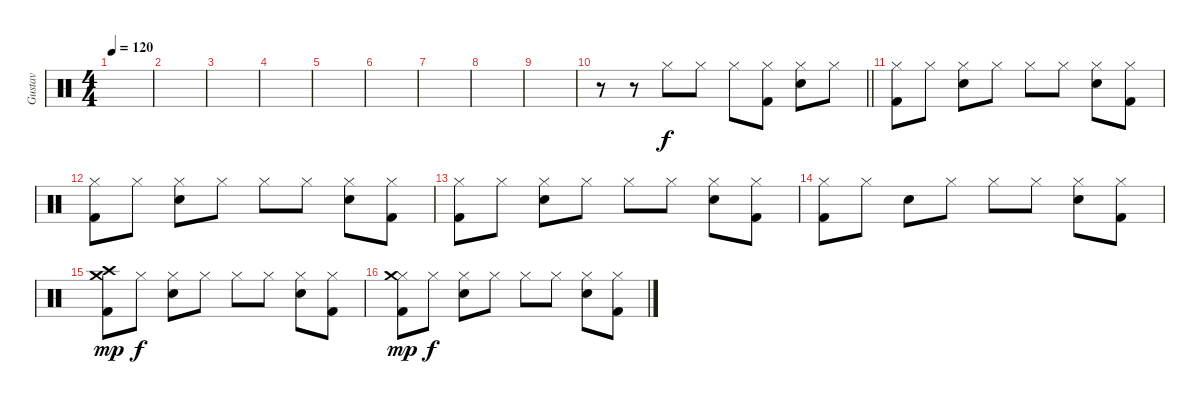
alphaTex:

\track ("Gustav" "Gustav") {instrument percussion}
\staff {score}
\articulation defaults
\ts (4 4)
\tempo 120
\clef neutral
\ks c
|
|
|
|
|
|
|
|
|
\barLineRight lightlight
r.8 r.8 "Hi-Hat (closed)".8 "Hi-Hat (closed)".8 "Hi-Hat (closed)".8 ("Hi-Hat (closed)" "Kick (hit) 2").8 ("Electric Snare (hit)" "Hi-Hat (closed)").8 "Hi-Hat (closed)".8 |
("Kick (hit) 2" "Hi-Hat (closed)").8{dy f} "Hi-Hat (closed)".8 ("Hi-Hat (closed)" "Snare (hit) 2").8 "Hi-Hat (closed)".8 "Hi-Hat (closed)".8 "Hi-Hat (closed)".8 ("Snare (hit) 2" "Hi-Hat (closed)").8 ("Hi-Hat (closed)" "Kick (hit) 2").8 |
("Kick (hit) 2" "Hi-Hat (closed)").8 "Hi-Hat (closed)".8 ("Hi-Hat (closed)" "Snare (hit) 2").8 "Hi-Hat (closed)".8 "Hi-Hat (closed)".8 "Hi-Hat (closed)".8 ("Snare (hit) 2" "Hi-Hat (closed)").8 ("Hi-Hat (closed)" "Kick (hit) 2").8 |
("Kick (hit) 2" "Hi-Hat (closed)").8 "Hi-Hat (closed)".8 ("Hi-Hat (closed)" "Snare (hit) 2").8 "Hi-Hat (closed)".8 "Hi-Hat (closed)".8 "Hi-Hat (closed)".8 ("Snare (hit) 2" "Hi-Hat (closed)").8 ("Hi-Hat (closed)" "Kick (hit) 2").8 |
("Kick (hit) 2" "Hi-Hat (closed)").8 "Hi-Hat (closed)".8 "Snare (hit) 2".8 "Hi-Hat (closed)".8 "Hi-Hat (closed)".8 "Hi-Hat (closed)".8 ("Snare (hit) 2" "Hi-Hat (closed)").8 ("Hi-Hat (closed)" "Kick (hit) 2").8 |
("Kick (hit) 2" "Crash high (hit)" "Crash medium (hit)").8{dy mp} "Hi-Hat (closed)".8{dy f} ("Hi-Hat (closed)" "Snare (hit) 2").8 "Hi-Hat (closed)".8 "Hi-Hat (closed)".8 "Hi-Hat (closed)".8 ("Snare (hit) 2" "Hi-Hat (closed)").8 ("Hi-Hat (closed)" "Kick (hit) 2").8 |
("Kick (hit) 2" "Hi-Hat (closed)" "Crash medium (hit)").8{dy mp} "Hi-Hat (closed)".8{dy f} ("Hi-Hat (closed)" "Snare (hit) 2").8 "Hi-Hat (closed)".8 "Hi-Hat (closed)".8 "Hi-Hat (closed)".8 ("Snare (hit) 2" "Hi-Hat (closed)").8 ("Hi-Hat (closed)" "Kick (hit) 2").8
